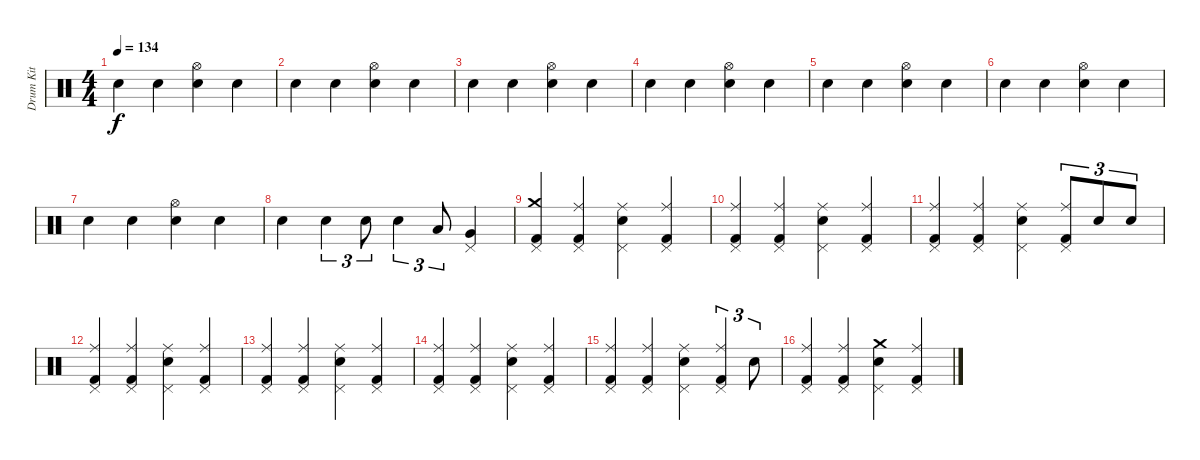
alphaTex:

\track ("Drum Kit" "Drum Kit") {instrument percussion}
\staff {score}
\articulation defaults
\ts (4 4)
\tempo 134
\clef neutral
\ks c "Snare (hit) 2".4{dy f} "Snare (hit) 2".4
("Hi-Hat (open)" "Snare (hit) 2").4 "Snare (hit) 2".4 |
"Snare (hit) 2".4 "Snare (hit) 2".4 ("Hi-Hat (open)" "Snare (hit) 2").4 "Snare (hit) 2".4 |
"Snare (hit) 2".4 "Snare (hit) 2".4 ("Hi-Hat (open)" "Snare (hit) 2").4 "Snare (hit) 2".4 |
"Snare (hit) 2".4 "Snare (hit) 2".4 ("Hi-Hat (open)" "Snare (hit) 2").4{volume 11} "Snare (hit) 2".4 |
"Snare (hit) 2".4 "Snare (hit) 2".4 ("Hi-Hat (open)" "Snare (hit) 2").4 "Snare (hit) 2".4 |
"Snare (hit) 2".4 "Snare (hit) 2".4 ("Hi-Hat (open)" "Snare (hit) 2").4 "Snare (hit) 2".4 |
"Snare (hit) 2".4 "Snare (hit) 2".4 ("Hi-Hat (open)" "Snare (hit) 2").4 "Snare (hit) 2".4 |
"Snare (hit) 2".4 "Snare (hit) 2".4{tu (3 2)} "Snare (hit) 2".8{tu (3 2)} "Snare (hit) 2".4{tu (3 2)} "Low Tom (hit)".8{tu (3 2)} ("Pedal Hi-Hat (hit)" "Very Low Tom (hit)").4 |
("Crash medium (hit)" "Pedal Hi-Hat (hit)" "Kick (hit) 2").4 ("Ride (middle)" "Pedal Hi-Hat (hit)" "Kick (hit) 2").4 ("Ride (middle)" "Pedal Hi-Hat (hit)" "Snare (hit) 2").4 ("Ride (middle)" "Pedal Hi-Hat (hit)" "Kick (hit) 2").4 |
("Ride (middle)" "Pedal Hi-Hat (hit)" "Kick (hit) 2").4 ("Ride (middle)" "Pedal Hi-Hat (hit)" "Kick (hit) 2").4 ("Ride (middle)" "Pedal Hi-Hat (hit)" "Snare (hit) 2").4 ("Ride (middle)" "Pedal Hi-Hat (hit)" "Kick (hit) 2").4 |
("Ride (middle)" "Pedal Hi-Hat (hit)" "Kick (hit) 2").4 ("Ride (middle)" "Pedal Hi-Hat (hit)" "Kick (hit) 2").4 ("Ride (middle)" "Pedal Hi-Hat (hit)" "Snare (hit) 2").4 ("Ride (middle)" "Pedal Hi-Hat (hit)" "Kick (hit) 2").8{tu (3 2)} "Snare (hit) 2".8{tu (3 2)} "Snare (hit) 2".8{tu (3 2)} |
("Ride (middle)" "Pedal Hi-Hat (hit)" "Kick (hit) 2").4 ("Ride (middle)" "Pedal Hi-Hat (hit)" "Kick (hit) 2").4 ("Ride (middle)" "Pedal Hi-Hat (hit)" "Snare (hit) 2").4 ("Ride (middle)" "Pedal Hi-Hat (hit)" "Kick (hit) 2").4 |
("Ride (middle)" "Pedal Hi-Hat (hit)" "Kick (hit) 2").4 ("Ride (middle)" "Pedal Hi-Hat (hit)" "Kick (hit) 2").4 ("Ride (middle)" "Pedal Hi-Hat (hit)" "Snare (hit) 2").4 ("Ride (middle)" "Pedal Hi-Hat (hit)" "Kick (hit) 2").4 |
("Ride (middle)" "Pedal Hi-Hat (hit)" "Kick (hit) 2").4 ("Ride (middle)" "Pedal Hi-Hat (hit)" "Kick (hit) 2").4 ("Ride (middle)" "Pedal Hi-Hat (hit)" "Snare (hit) 2").4 ("Ride (middle)" "Pedal Hi-Hat (hit)" "Kick (hit) 2").4 |
("Ride (middle)" "Pedal Hi-Hat (hit)" "Kick (hit) 2").4 ("Ride (middle)" "Pedal Hi-Hat (hit)" "Kick (hit) 2").4 ("Ride (middle)" "Pedal Hi-Hat (hit)" "Snare (hit) 2").4 ("Ride (middle)" "Pedal Hi-Hat (hit)" "Kick (hit) 2").4{tu (3 2)} "Snare (hit) 2".8{tu (3 2)} |
("Ride (middle)" "Pedal Hi-Hat (hit)" "Kick (hit) 2").4 ("Ride (middle)" "Pedal Hi-Hat (hit)" "Kick (hit) 2").4 ("Crash medium (hit)" "Pedal Hi-Hat (hit)" "Snare (hit) 2").4 ("Ride (middle)" "Pedal Hi-Hat (hit)" "Kick (hit) 2").4
